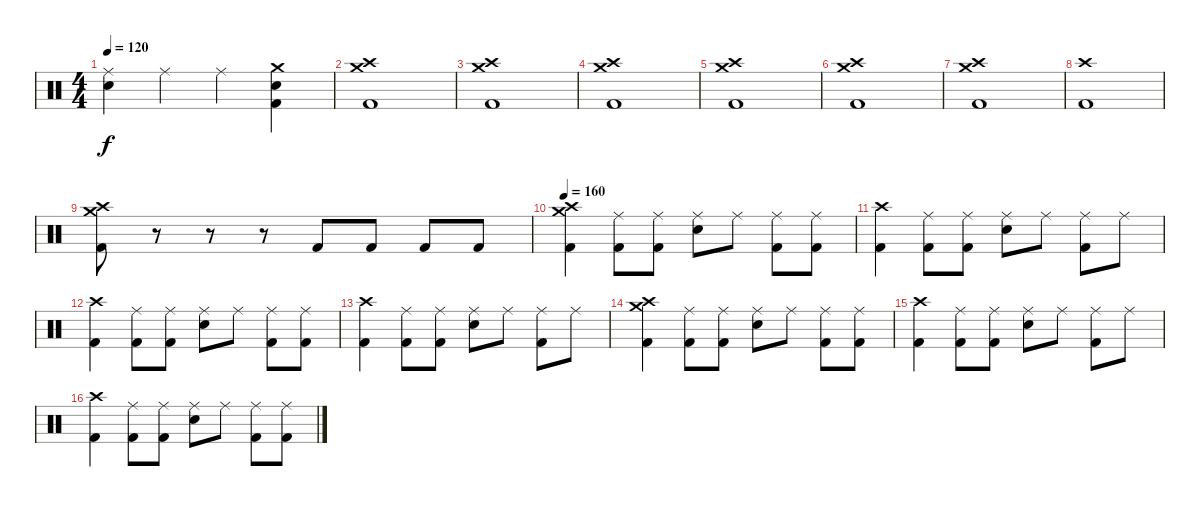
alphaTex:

\track "" {instrument percussion}
\staff {score}
\articulation defaults
\ts (4 4)
\tempo 120
\clef neutral
\ks c
("Ride (middle)" "Snare (hit) 2").4{dy f} "Ride (middle)".4 "Ride (middle)".4 ("Kick (hit) 2" "Snare (hit) 2" "Crash medium (hit)").4 |
("Kick (hit) 2" "Crash high (hit)" "Crash medium (hit)").1 |
("Kick (hit) 2" "Crash high (hit)" "Crash medium (hit)").1 |
("Kick (hit) 2" "Crash high (hit)" "Crash medium (hit)").1 |
("Kick (hit) 2" "Crash high (hit)" "Crash medium (hit)").1 |
("Kick (hit) 2" "Crash high (hit)" "Crash medium (hit)").1 |
("Kick (hit) 2" "Crash high (hit)" "Crash medium (hit)").1 |
("Kick (hit) 2" "Crash high (hit)").1 |
("Kick (hit) 2" "Crash high (hit)" "Crash medium (hit)").8 r.8 r.8 r.8 "Kick (hit) 2".8 "Kick (hit) 2".8 "Kick (hit) 2".8 "Kick (hit) 2".8 |
\tempo 160
("Kick (hit) 2" "Crash high (hit)" "Crash medium (hit)").4 ("Kick (hit) 2" "Ride (middle)").8 ("Kick (hit) 2" "Ride (middle)").8 ("Snare (hit) 2" "Ride (middle)").8 "Ride (middle)".8 ("Kick (hit) 2" "Ride (middle)").8 ("Kick (hit) 2" "Ride (middle)").8 |
("Kick (hit) 2" "Crash high (hit)").4 ("Kick (hit) 2" "Ride (middle)").8 ("Kick (hit) 2" "Ride (middle)").8 ("Snare (hit) 2" "Ride (middle)").8 "Ride (middle)".8 ("Kick (hit) 2" "Ride (middle)").8 "Ride (middle)".8 |
("Kick (hit) 2" "Crash high (hit)").4 ("Kick (hit) 2" "Ride (middle)").8 ("Kick (hit) 2" "Ride (middle)").8 ("Snare (hit) 2" "Ride (middle)").8 "Ride (middle)".8 ("Kick (hit) 2" "Ride (middle)").8 ("Kick (hit) 2" "Ride (middle)").8 |
("Kick (hit) 2" "Crash high (hit)").4 ("Kick (hit) 2" "Ride (middle)").8 ("Kick (hit) 2" "Ride (middle)").8 ("Snare (hit) 2" "Ride (middle)").8 "Ride (middle)".8 ("Kick (hit) 2" "Ride (middle)").8 "Ride (middle)".8 |
("Kick (hit) 2" "Crash high (hit)" "Crash medium (hit)").4 ("Kick (hit) 2" "Ride (middle)").8 ("Kick (hit) 2" "Ride (middle)").8 ("Snare (hit) 2" "Ride (middle)").8 "Ride (middle)".8 ("Kick (hit) 2" "Ride (middle)").8 ("Kick (hit) 2" "Ride (middle)").8 |
("Kick (hit) 2" "Crash high (hit)").4 ("Kick (hit) 2" "Ride (middle)").8 ("Kick (hit) 2" "Ride (middle)").8 ("Snare (hit) 2" "Ride (middle)").8 "Ride (middle)".8 ("Kick (hit) 2" "Ride (middle)").8 "Ride (middle)".8 |
("Kick (hit) 2" "Crash high (hit)").4 ("Kick (hit) 2" "Ride (middle)").8 ("Kick (hit) 2" "Ride (middle)").8 ("Snare (hit) 2" "Ride (middle)").8 "Ride (middle)".8 ("Kick (hit) 2" "Ride (middle)").8 ("Kick (hit) 2" "Ride (middle)").8
